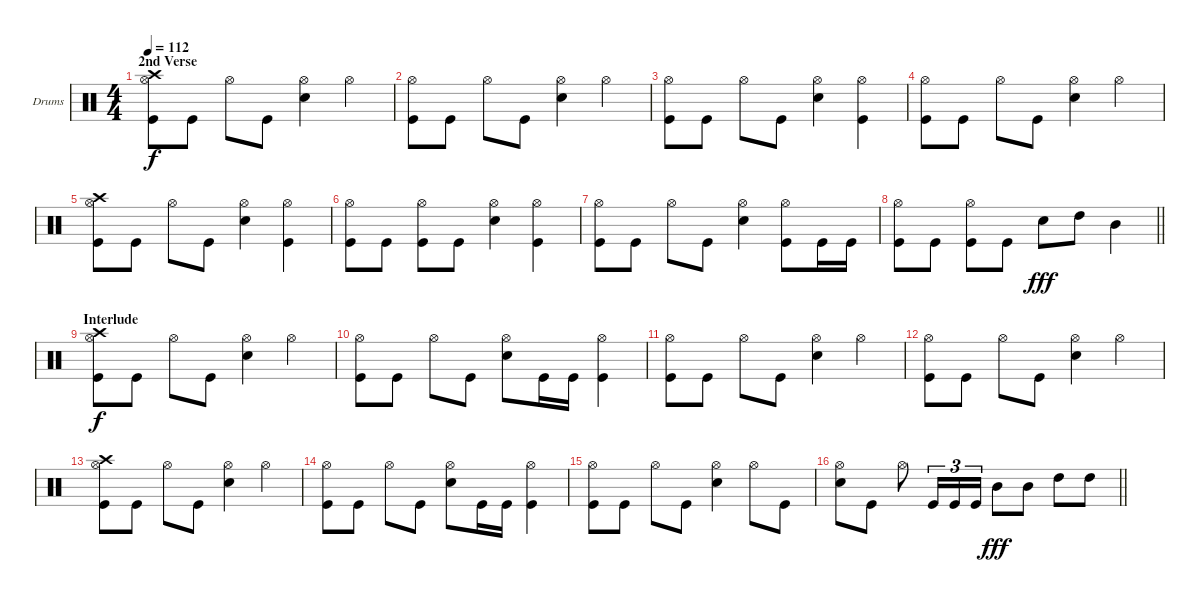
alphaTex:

\bracketExtendMode groupsimilarinstruments
\firstSystemTrackNameOrientation horizontal
\otherSystemsTrackNameOrientation horizontal
\track ("Drumkit" "Drums") {instrument percussion}
\staff {score}
\articulation defaults
\ts (4 4)
\section ("" "2nd Verse")
\tempo 112
\clef neutral
\ks c
("Kick (hit)" "Hi-Hat (open)" "Crash high (hit)").8{dy f} "Kick (hit)".8 "Hi-Hat (open)".8 "Kick (hit)".8 ("Snare (hit) 2" "Hi-Hat (open)").4 "Hi-Hat (open)".4 |
("Kick (hit)" "Hi-Hat (open)").8 "Kick (hit)".8 "Hi-Hat (open)".8 "Kick (hit)".8 ("Snare (hit) 2" "Hi-Hat (open)").4 "Hi-Hat (open)".4 |
("Kick (hit)" "Hi-Hat (open)").8 "Kick (hit)".8 "Hi-Hat (open)".8 "Kick (hit)".8 ("Snare (hit) 2" "Hi-Hat (open)").4 ("Kick (hit)" "Hi-Hat (open)").4 |
("Kick (hit)" "Hi-Hat (open)").8 "Kick (hit)".8 "Hi-Hat (open)".8 "Kick (hit)".8 ("Snare (hit) 2" "Hi-Hat (open)").4 "Hi-Hat (open)".4 |
("Kick (hit)" "Hi-Hat (open)" "Crash high (hit)").8 "Kick (hit)".8 "Hi-Hat (open)".8 "Kick (hit)".8 ("Snare (hit) 2" "Hi-Hat (open)").4 ("Kick (hit)" "Hi-Hat (open)").4 |
("Kick (hit)" "Hi-Hat (open)").8 "Kick (hit)".8 ("Kick (hit)" "Hi-Hat (open)").8 "Kick (hit)".8 ("Snare (hit) 2" "Hi-Hat (open)").4 ("Kick (hit)" "Hi-Hat (open)").4 |
("Kick (hit)" "Hi-Hat (open)").8 "Kick (hit)".8 "Hi-Hat (open)".8 "Kick (hit)".8 ("Snare (hit) 2" "Hi-Hat (open)").4 ("Kick (hit)" "Hi-Hat (open)").8 "Kick (hit)".16 "Kick (hit)".16 |
\barLineRight lightlight
("Kick (hit)" "Hi-Hat (open)").8 "Kick (hit)".8 ("Kick (hit)" "Hi-Hat (open)").8 "Kick (hit)".8 "Snare (hit) 2".8{dy fff} "High Tom (hit)".8 "Mid Tom (hit)".4 |
\section ("" "Interlude")
("Kick (hit)" "Hi-Hat (open)" "Crash high (hit)").8{dy f} "Kick (hit)".8 "Hi-Hat (open)".8 "Kick (hit)".8 ("Snare (hit) 2" "Hi-Hat (open)").4 "Hi-Hat (open)".4 |
("Kick (hit)" "Hi-Hat (open)").8 "Kick (hit)".8 "Hi-Hat (open)".8 "Kick (hit)".8 ("Snare (hit) 2" "Hi-Hat (open)").8 "Kick (hit)".16 "Kick (hit)".16 ("Kick (hit)" "Hi-Hat (open)").4 |
("Kick (hit)" "Hi-Hat (open)").8 "Kick (hit)".8 "Hi-Hat (open)".8 "Kick (hit)".8 ("Snare (hit) 2" "Hi-Hat (open)").4 "Hi-Hat (open)".4 |
("Kick (hit)" "Hi-Hat (open)").8 "Kick (hit)".8 "Hi-Hat (open)".8 "Kick (hit)".8 ("Snare (hit) 2" "Hi-Hat (open)").4 "Hi-Hat (open)".4 |
("Kick (hit)" "Hi-Hat (open)" "Crash high (hit)").8 "Kick (hit)".8 "Hi-Hat (open)".8 "Kick (hit)".8 ("Snare (hit) 2" "Hi-Hat (open)").4 "Hi-Hat (open)".4 |
("Kick (hit)" "Hi-Hat (open)").8 "Kick (hit)".8 "Hi-Hat (open)".8 "Kick (hit)".8 ("Snare (hit) 2" "Hi-Hat (open)").8 "Kick (hit)".16 "Kick (hit)".16 ("Kick (hit)" "Hi-Hat (open)").4 |
("Kick (hit)" "Hi-Hat (open)").8 "Kick (hit)".8 "Hi-Hat (open)".8 "Kick (hit)".8 ("Snare (hit) 2" "Hi-Hat (open)").4 "Hi-Hat (open)".8 "Kick (hit)".8 |
\barLineRight lightlight
("Snare (hit) 2" "Hi-Hat (open)").8 "Kick (hit)".8 "Hi-Hat (open)".8 "Kick (hit)".16{tu (3 2)} "Kick (hit)".16{tu (3 2)} "Kick (hit)".16{tu (3 2)} "Mid Tom (hit)".8{dy fff} "Mid Tom (hit)".8 "High Tom (hit)".8 "High Tom (hit)".8
